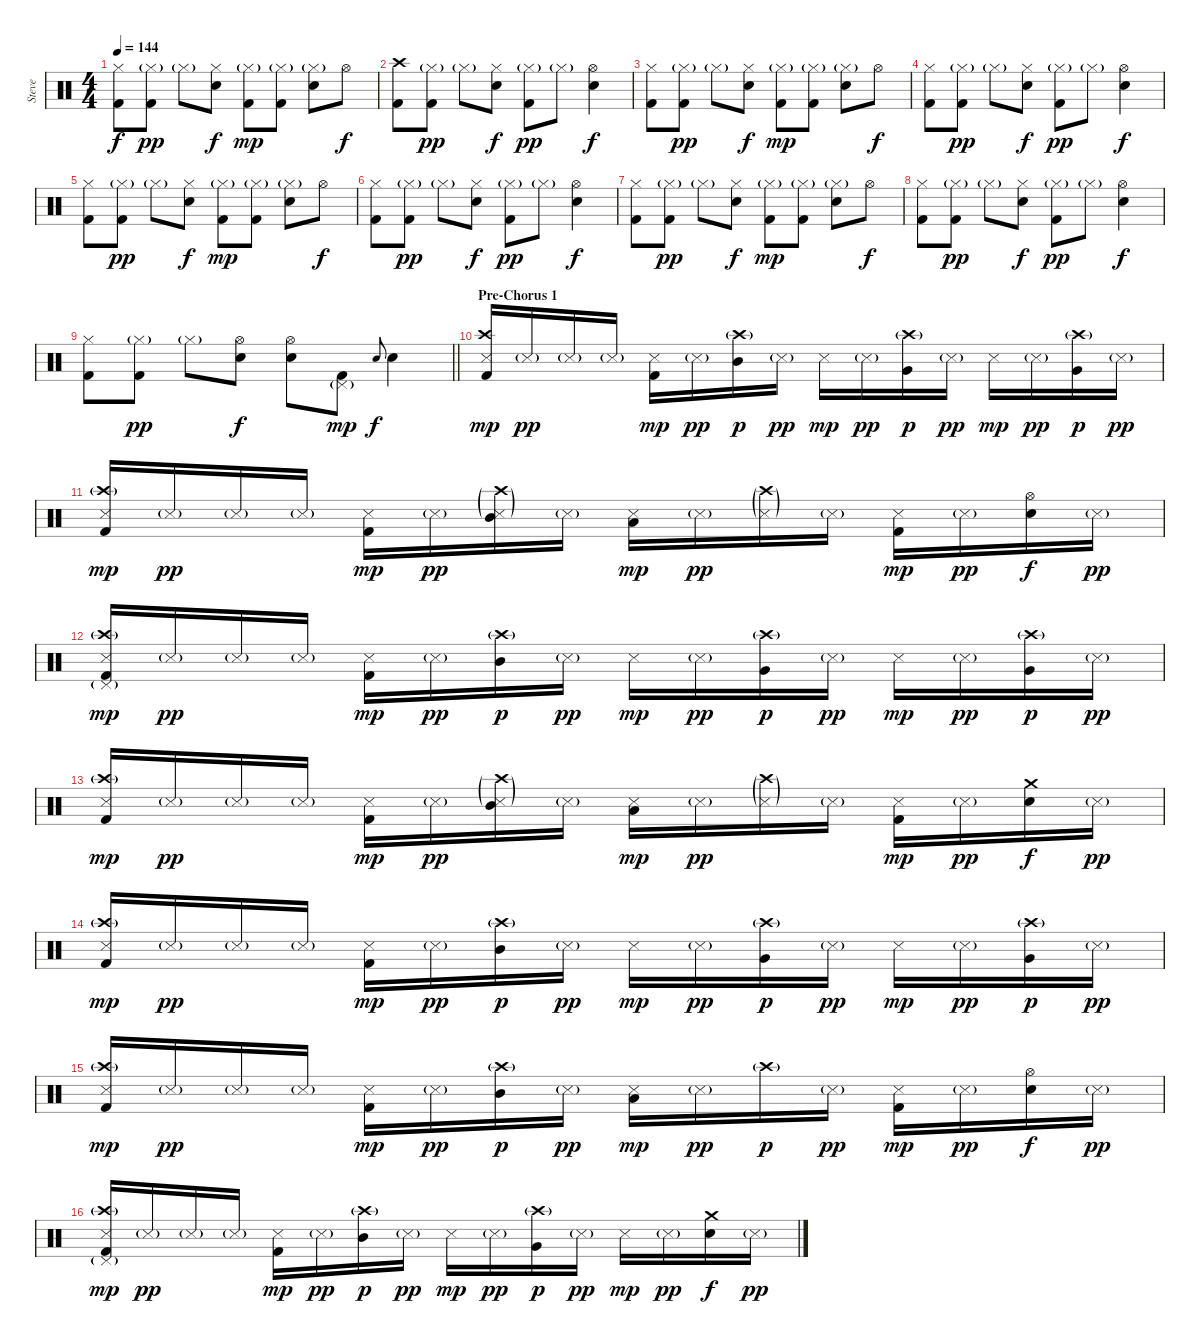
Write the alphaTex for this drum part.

\track ("Steve" "Steve") {instrument percussion}
\staff {score}
\articulation defaults
\ts (4 4)
\tempo 144
\clef neutral
\ks c
("Hi-Hat (closed)" "Kick (hit) 2").8{dy f} ("Hi-Hat (closed)"{g} "Kick (hit) 2").8{dy pp} "Hi-Hat (closed)"{g}.8 ("Hi-Hat (closed)" "Electric Snare (hit)").8{dy f} ("Hi-Hat (closed)"{g} "Kick (hit) 2").8{dy mp} ("Hi-Hat (closed)"{g} "Kick (hit) 2").8 ("Hi-Hat (closed)"{g} "Electric Snare (hit)").8 "Hi-Hat (open)".8{dy f} |
("Crash high (hit)" "Kick (hit) 2").8 ("Hi-Hat (closed)"{g} "Kick (hit) 2").8{dy pp} "Hi-Hat (closed)"{g}.8 ("Hi-Hat (closed)" "Electric Snare (hit)").8{dy f} ("Hi-Hat (closed)"{g} "Kick (hit) 2").8{dy pp} "Hi-Hat (closed)"{g}.8 ("Hi-Hat (open)" "Electric Snare (hit)").4{dy f} |
("Hi-Hat (closed)" "Kick (hit) 2").8 ("Hi-Hat (closed)"{g} "Kick (hit) 2").8{dy pp} "Hi-Hat (closed)"{g}.8 ("Hi-Hat (closed)" "Electric Snare (hit)").8{dy f} ("Hi-Hat (closed)"{g} "Kick (hit) 2").8{dy mp} ("Hi-Hat (closed)"{g} "Kick (hit) 2").8 ("Hi-Hat (closed)"{g} "Electric Snare (hit)").8 "Hi-Hat (open)".8{dy f} |
("Hi-Hat (closed)" "Kick (hit) 2").8 ("Hi-Hat (closed)"{g} "Kick (hit) 2").8{dy pp} "Hi-Hat (closed)"{g}.8 ("Hi-Hat (closed)" "Electric Snare (hit)").8{dy f} ("Hi-Hat (closed)"{g} "Kick (hit) 2").8{dy pp} "Hi-Hat (closed)"{g}.8 ("Hi-Hat (open)" "Electric Snare (hit)").4{dy f} |
("Hi-Hat (closed)" "Kick (hit) 2").8 ("Hi-Hat (closed)"{g} "Kick (hit) 2").8{dy pp} "Hi-Hat (closed)"{g}.8 ("Hi-Hat (closed)" "Electric Snare (hit)").8{dy f} ("Hi-Hat (closed)"{g} "Kick (hit) 2").8{dy mp} ("Hi-Hat (closed)"{g} "Kick (hit) 2").8 ("Hi-Hat (closed)"{g} "Electric Snare (hit)").8 "Hi-Hat (open)".8{dy f} |
("Hi-Hat (closed)" "Kick (hit) 2").8 ("Hi-Hat (closed)"{g} "Kick (hit) 2").8{dy pp} "Hi-Hat (closed)"{g}.8 ("Hi-Hat (closed)" "Electric Snare (hit)").8{dy f} ("Hi-Hat (closed)"{g} "Kick (hit) 2").8{dy pp} "Hi-Hat (closed)"{g}.8 ("Hi-Hat (open)" "Electric Snare (hit)").4{dy f} |
("Hi-Hat (closed)" "Kick (hit) 2").8 ("Hi-Hat (closed)"{g} "Kick (hit) 2").8{dy pp} "Hi-Hat (closed)"{g}.8 ("Hi-Hat (closed)" "Electric Snare (hit)").8{dy f} ("Hi-Hat (closed)"{g} "Kick (hit) 2").8{dy mp} ("Hi-Hat (closed)"{g} "Kick (hit) 2").8 ("Hi-Hat (closed)"{g} "Electric Snare (hit)").8 "Hi-Hat (open)".8{dy f} |
("Hi-Hat (closed)" "Kick (hit) 2").8 ("Hi-Hat (closed)"{g} "Kick (hit) 2").8{dy pp} "Hi-Hat (closed)"{g}.8 ("Hi-Hat (closed)" "Electric Snare (hit)").8{dy f} ("Hi-Hat (closed)"{g} "Kick (hit) 2").8{dy pp} "Hi-Hat (closed)"{g}.8 ("Hi-Hat (open)" "Electric Snare (hit)").4{dy f} |
\barLineRight lightlight
("Hi-Hat (closed)" "Kick (hit) 2").8 ("Hi-Hat (closed)"{g} "Kick (hit) 2").8{dy pp} "Hi-Hat (closed)"{g}.8 ("Hi-Hat (open)" "Electric Snare (hit)").8{dy f} ("Hi-Hat (open)" "Electric Snare (hit)").8 ("Pedal Hi-Hat (hit)"{g} "Kick (hit) 2").8{dy mp} "Electric Snare (hit)".8{gr onbeat dy f} "Electric Snare (hit)".4 |
\section ("" "Pre-Chorus 1")
("Crash high (hit)" "Snare (side stick) 3" "Kick (hit) 2").16{dy mp} "Snare (side stick) 3"{g}.16{dy pp} "Snare (side stick) 3"{g}.16 "Snare (side stick) 3"{g}.16 ("Snare (side stick) 3" "Kick (hit) 2").16{dy mp} "Snare (side stick) 3"{g}.16{dy pp} ("Crash high (hit)"{g} "Mid Tom (hit)").16{dy p} "Snare (side stick) 3"{g}.16{dy pp} "Snare (side stick) 3".16{dy mp} "Snare (side stick) 3"{g}.16{dy pp} ("Crash high (hit)"{g} "Very Low Tom (hit)").16{dy p} "Snare (side stick) 3"{g}.16{dy pp} "Snare (side stick) 3".16{dy mp} "Snare (side stick) 3"{g}.16{dy pp} ("Crash high (hit)"{g} "Very Low Tom (hit)").16{dy p} "Snare (side stick) 3"{g}.16{dy pp} |
("Crash high (hit)"{g} "Snare (side stick) 3" "Kick (hit) 2").16{dy mp} "Snare (side stick) 3"{g}.16{dy pp} "Snare (side stick) 3"{g}.16 "Snare (side stick) 3"{g}.16 ("Snare (side stick) 3" "Kick (hit) 2").16{dy mp} "Snare (side stick) 3"{g}.16{dy pp} ("Crash high (hit)"{g} "Snare (side stick) 3"{g} "Mid Tom (hit)").16 "Snare (side stick) 3"{g}.16 ("Snare (side stick) 3" "Low Floor Tom (hit)").16{dy mp} "Snare (side stick) 3"{g}.16{dy pp} ("Crash high (hit)"{g} "Snare (side stick) 3"{g}).16 "Snare (side stick) 3"{g}.16 ("Snare (side stick) 3" "Kick (hit) 2").16{dy mp} "Snare (side stick) 3"{g}.16{dy pp} ("Hi-Hat (open)" "Electric Snare (hit)").16{dy f} "Snare (side stick) 3"{g}.16{dy pp} |
("Crash high (hit)"{g} "Snare (side stick) 3" "Pedal Hi-Hat (hit)"{g} "Kick (hit) 2").16{dy mp} "Snare (side stick) 3"{g}.16{dy pp} "Snare (side stick) 3"{g}.16 "Snare (side stick) 3"{g}.16 ("Snare (side stick) 3" "Kick (hit) 2").16{dy mp} "Snare (side stick) 3"{g}.16{dy pp} ("Crash high (hit)"{g} "Mid Tom (hit)").16{dy p} "Snare (side stick) 3"{g}.16{dy pp} "Snare (side stick) 3".16{dy mp} "Snare (side stick) 3"{g}.16{dy pp} ("Crash high (hit)"{g} "Very Low Tom (hit)").16{dy p} "Snare (side stick) 3"{g}.16{dy pp} "Snare (side stick) 3".16{dy mp} "Snare (side stick) 3"{g}.16{dy pp} ("Crash high (hit)"{g} "Very Low Tom (hit)").16{dy p} "Snare (side stick) 3"{g}.16{dy pp} |
("Crash high (hit)"{g} "Snare (side stick) 3" "Kick (hit) 2").16{dy mp} "Snare (side stick) 3"{g}.16{dy pp} "Snare (side stick) 3"{g}.16 "Snare (side stick) 3"{g}.16 ("Snare (side stick) 3" "Kick (hit) 2").16{dy mp} "Snare (side stick) 3"{g}.16{dy pp} ("Crash high (hit)"{g} "Snare (side stick) 3"{g} "Mid Tom (hit)").16 "Snare (side stick) 3"{g}.16 ("Snare (side stick) 3" "Low Floor Tom (hit)").16{dy mp} "Snare (side stick) 3"{g}.16{dy pp} ("Crash high (hit)"{g} "Snare (side stick) 3"{g}).16 "Snare (side stick) 3"{g}.16 ("Snare (side stick) 3" "Kick (hit) 2").16{dy mp} "Snare (side stick) 3"{g}.16{dy pp} ("Crash medium (hit)" "Electric Snare (hit)").16{dy f} "Snare (side stick) 3"{g}.16{dy pp} |
("Crash high (hit)"{g} "Snare (side stick) 3" "Kick (hit) 2").16{dy mp} "Snare (side stick) 3"{g}.16{dy pp} "Snare (side stick) 3"{g}.16 "Snare (side stick) 3"{g}.16 ("Snare (side stick) 3" "Kick (hit) 2").16{dy mp} "Snare (side stick) 3"{g}.16{dy pp} ("Crash high (hit)"{g} "Mid Tom (hit)").16{dy p} "Snare (side stick) 3"{g}.16{dy pp} "Snare (side stick) 3".16{dy mp} "Snare (side stick) 3"{g}.16{dy pp} ("Crash high (hit)"{g} "Very Low Tom (hit)").16{dy p} "Snare (side stick) 3"{g}.16{dy pp} "Snare (side stick) 3".16{dy mp} "Snare (side stick) 3"{g}.16{dy pp} ("Crash high (hit)"{g} "Very Low Tom (hit)").16{dy p} "Snare (side stick) 3"{g}.16{dy pp} |
("Crash high (hit)"{g} "Snare (side stick) 3" "Kick (hit) 2").16{dy mp} "Snare (side stick) 3"{g}.16{dy pp} "Snare (side stick) 3"{g}.16 "Snare (side stick) 3"{g}.16 ("Snare (side stick) 3" "Kick (hit) 2").16{dy mp} "Snare (side stick) 3"{g}.16{dy pp} ("Crash high (hit)"{g} "Mid Tom (hit)").16{dy p} "Snare (side stick) 3"{g}.16{dy pp} ("Snare (side stick) 3" "Low Floor Tom (hit)").16{dy mp} "Snare (side stick) 3"{g}.16{dy pp} "Crash high (hit)"{g}.16{dy p} "Snare (side stick) 3"{g}.16{dy pp} ("Snare (side stick) 3" "Kick (hit) 2").16{dy mp} "Snare (side stick) 3"{g}.16{dy pp} ("Hi-Hat (open)" "Electric Snare (hit)").16{dy f} "Snare (side stick) 3"{g}.16{dy pp} |
("Crash high (hit)"{g} "Snare (side stick) 3" "Pedal Hi-Hat (hit)"{g} "Kick (hit) 2").16{dy mp} "Snare (side stick) 3"{g}.16{dy pp} "Snare (side stick) 3"{g}.16 "Snare (side stick) 3"{g}.16 ("Snare (side stick) 3" "Kick (hit) 2").16{dy mp} "Snare (side stick) 3"{g}.16{dy pp} ("Crash high (hit)"{g} "Mid Tom (hit)").16{dy p} "Snare (side stick) 3"{g}.16{dy pp} "Snare (side stick) 3".16{dy mp} "Snare (side stick) 3"{g}.16{dy pp} ("Crash high (hit)"{g} "Very Low Tom (hit)").16{dy p} "Snare (side stick) 3"{g}.16{dy pp} "Snare (side stick) 3".16{dy mp} "Snare (side stick) 3"{g}.16{dy pp} ("Crash medium (hit)" "Electric Snare (hit)").16{dy f} "Snare (side stick) 3"{g}.16{dy pp}
